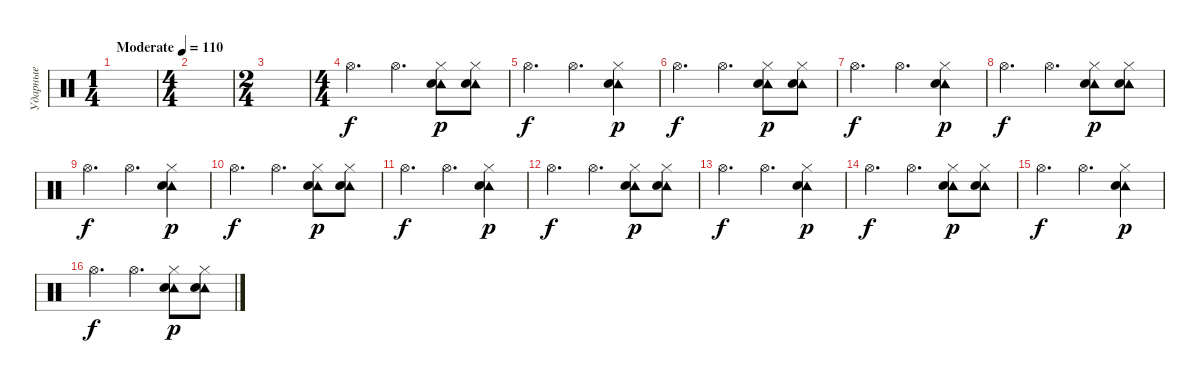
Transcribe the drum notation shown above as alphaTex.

\track ("Ударные" "Ударные") {instrument percussion}
\staff {score}
\articulation defaults
\ts (1 4)
\tempo (110 "Moderate")
\clef neutral
\ks c
|
\ts (4 4)
|
\ts (2 4)
|
\ts (4 4)
"Hi-Hat (open)".4{d} "Hi-Hat (open)".4{d} ("Tambourine (hit)" "Metronome (bell)" "Hi-Hat (closed)").8{dy p} ("Tambourine (hit)" "Metronome (bell)" "Hi-Hat (closed)").8 |
"Hi-Hat (open)".4{d dy f} "Hi-Hat (open)".4{d} ("Tambourine (hit)" "Metronome (bell)" "Hi-Hat (closed)").4{dy p} |
"Hi-Hat (open)".4{d dy f} "Hi-Hat (open)".4{d} ("Tambourine (hit)" "Metronome (bell)" "Hi-Hat (closed)").8{dy p} ("Tambourine (hit)" "Metronome (bell)" "Hi-Hat (closed)").8 |
"Hi-Hat (open)".4{d dy f} "Hi-Hat (open)".4{d} ("Tambourine (hit)" "Metronome (bell)" "Hi-Hat (closed)").4{dy p} |
"Hi-Hat (open)".4{d dy f} "Hi-Hat (open)".4{d} ("Tambourine (hit)" "Metronome (bell)" "Hi-Hat (closed)").8{dy p} ("Tambourine (hit)" "Metronome (bell)" "Hi-Hat (closed)").8 |
"Hi-Hat (open)".4{d dy f} "Hi-Hat (open)".4{d} ("Tambourine (hit)" "Metronome (bell)" "Hi-Hat (closed)").4{dy p} |
"Hi-Hat (open)".4{d dy f} "Hi-Hat (open)".4{d} ("Tambourine (hit)" "Metronome (bell)" "Hi-Hat (closed)").8{dy p} ("Tambourine (hit)" "Metronome (bell)" "Hi-Hat (closed)").8 |
"Hi-Hat (open)".4{d dy f} "Hi-Hat (open)".4{d} ("Tambourine (hit)" "Metronome (bell)" "Hi-Hat (closed)").4{dy p} |
"Hi-Hat (open)".4{d dy f} "Hi-Hat (open)".4{d} ("Tambourine (hit)" "Metronome (bell)" "Hi-Hat (closed)").8{dy p} ("Tambourine (hit)" "Metronome (bell)" "Hi-Hat (closed)").8 |
"Hi-Hat (open)".4{d dy f} "Hi-Hat (open)".4{d} ("Tambourine (hit)" "Metronome (bell)" "Hi-Hat (closed)").4{dy p} |
"Hi-Hat (open)".4{d dy f} "Hi-Hat (open)".4{d} ("Tambourine (hit)" "Metronome (bell)" "Hi-Hat (closed)").8{dy p} ("Tambourine (hit)" "Metronome (bell)" "Hi-Hat (closed)").8 |
"Hi-Hat (open)".4{d dy f} "Hi-Hat (open)".4{d} ("Tambourine (hit)" "Metronome (bell)" "Hi-Hat (closed)").4{dy p} |
"Hi-Hat (open)".4{d dy f} "Hi-Hat (open)".4{d} ("Tambourine (hit)" "Metronome (bell)" "Hi-Hat (closed)").8{dy p} ("Tambourine (hit)" "Metronome (bell)" "Hi-Hat (closed)").8
